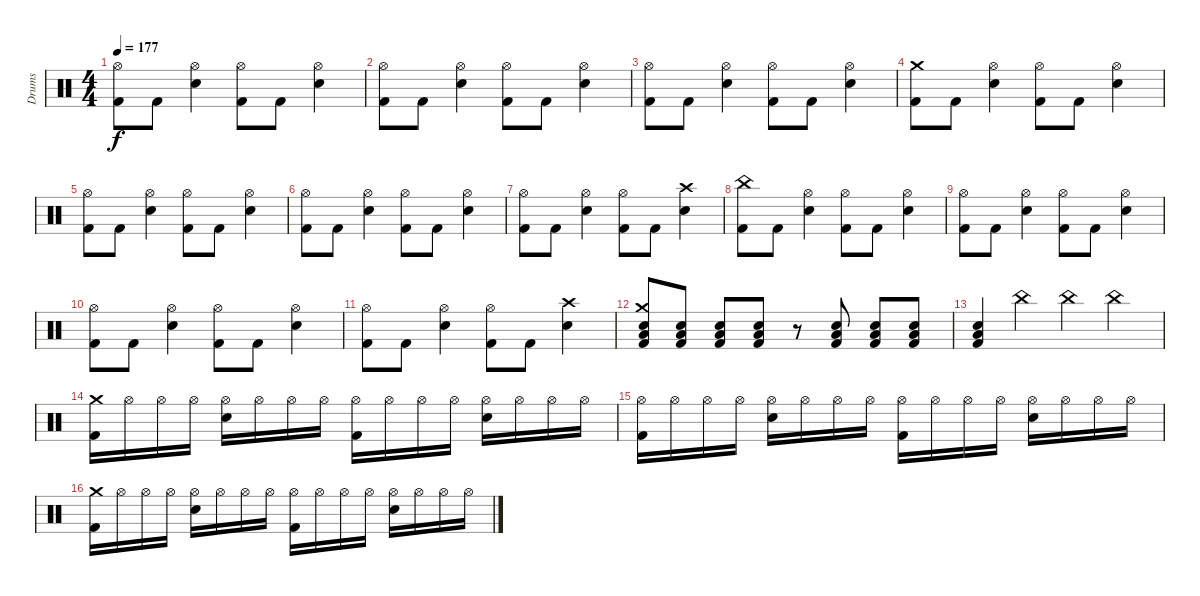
\track ("Drums" "Drums") {solo instrument percussion}
\staff {score}
\articulation defaults
\ts (4 4)
\tempo 177
\clef neutral
\ks c
("Hi-Hat (open)" "Kick (hit) 2").8{dy f} "Kick (hit) 2".8 ("Hi-Hat (open)" "Snare (hit) 2").4 ("Hi-Hat (open)" "Kick (hit) 2").8 "Kick (hit) 2".8 ("Hi-Hat (open)" "Snare (hit) 2").4 |
("Hi-Hat (open)" "Kick (hit) 2").8 "Kick (hit) 2".8 ("Hi-Hat (open)" "Snare (hit) 2").4 ("Hi-Hat (open)" "Kick (hit) 2").8 "Kick (hit) 2".8 ("Hi-Hat (open)" "Snare (hit) 2").4 |
("Hi-Hat (open)" "Kick (hit) 2").8 "Kick (hit) 2".8 ("Hi-Hat (open)" "Snare (hit) 2").4 ("Hi-Hat (open)" "Kick (hit) 2").8 "Kick (hit) 2".8 ("Hi-Hat (open)" "Snare (hit) 2").4 |
("Crash medium (hit)" "Kick (hit) 2").8 "Kick (hit) 2".8 ("Hi-Hat (open)" "Snare (hit) 2").4 ("Hi-Hat (open)" "Kick (hit) 2").8 "Kick (hit) 2".8 ("Hi-Hat (open)" "Snare (hit) 2").4 |
("Hi-Hat (open)" "Kick (hit) 2").8 "Kick (hit) 2".8 ("Hi-Hat (open)" "Snare (hit) 2").4 ("Hi-Hat (open)" "Kick (hit) 2").8 "Kick (hit) 2".8 ("Hi-Hat (open)" "Snare (hit) 2").4 |
("Hi-Hat (open)" "Kick (hit) 2").8 "Kick (hit) 2".8 ("Hi-Hat (open)" "Snare (hit) 2").4 ("Hi-Hat (open)" "Kick (hit) 2").8 "Kick (hit) 2".8 ("Hi-Hat (open)" "Snare (hit) 2").4 |
("Hi-Hat (open)" "Kick (hit) 2").8 "Kick (hit) 2".8 ("Hi-Hat (open)" "Snare (hit) 2").4 ("Hi-Hat (open)" "Kick (hit) 2").8 "Kick (hit) 2".8 ("Crash high (hit)" "Snare (hit) 2").4 |
("China (hit)" "Kick (hit) 2").8 "Kick (hit) 2".8 ("Hi-Hat (open)" "Snare (hit) 2").4 ("Hi-Hat (open)" "Kick (hit) 2").8 "Kick (hit) 2".8 ("Hi-Hat (open)" "Snare (hit) 2").4 |
("Hi-Hat (open)" "Kick (hit) 2").8 "Kick (hit) 2".8 ("Hi-Hat (open)" "Snare (hit) 2").4 ("Hi-Hat (open)" "Kick (hit) 2").8 "Kick (hit) 2".8 ("Hi-Hat (open)" "Snare (hit) 2").4 |
("Hi-Hat (open)" "Kick (hit) 2").8 "Kick (hit) 2".8 ("Hi-Hat (open)" "Snare (hit) 2").4 ("Hi-Hat (open)" "Kick (hit) 2").8 "Kick (hit) 2".8 ("Hi-Hat (open)" "Snare (hit) 2").4 |
("Hi-Hat (open)" "Kick (hit) 2").8 "Kick (hit) 2".8 ("Hi-Hat (open)" "Snare (hit) 2").4 ("Hi-Hat (open)" "Kick (hit) 2").8 "Kick (hit) 2".8 ("Crash high (hit)" "Snare (hit) 2").4 |
("Crash medium (hit)" "Low Floor Tom (hit)" "Snare (hit) 2" "Kick (hit) 2").8 ("Low Floor Tom (hit)" "Snare (hit) 2" "Kick (hit) 2").8 ("Low Floor Tom (hit)" "Snare (hit) 2" "Kick (hit) 2").8 ("Low Floor Tom (hit)" "Snare (hit) 2" "Kick (hit) 2").8 r.8 ("Low Floor Tom (hit)" "Snare (hit) 2" "Kick (hit) 2").8 ("Low Floor Tom (hit)" "Snare (hit) 2" "Kick (hit) 2").8 ("Low Floor Tom (hit)" "Snare (hit) 2" "Kick (hit) 2").8 |
("Low Floor Tom (hit)" "Snare (hit) 2" "Kick (hit) 2").4 "China (hit)".4 "China (hit)".4 "China (hit)".4 |
("Crash medium (hit)" "Kick (hit) 2").16 "Hi-Hat (open)".16 "Hi-Hat (open)".16 "Hi-Hat (open)".16 ("Hi-Hat (open)" "Snare (hit) 2").16 "Hi-Hat (open)".16 "Hi-Hat (open)".16 "Hi-Hat (open)".16 ("Hi-Hat (open)" "Kick (hit) 2").16 "Hi-Hat (open)".16 "Hi-Hat (open)".16 "Hi-Hat (open)".16 ("Hi-Hat (open)" "Snare (hit) 2").16 "Hi-Hat (open)".16 "Hi-Hat (open)".16 "Hi-Hat (open)".16 |
("Hi-Hat (open)" "Kick (hit) 2").16 "Hi-Hat (open)".16 "Hi-Hat (open)".16 "Hi-Hat (open)".16 ("Hi-Hat (open)" "Snare (hit) 2").16 "Hi-Hat (open)".16 "Hi-Hat (open)".16 "Hi-Hat (open)".16 ("Hi-Hat (open)" "Kick (hit) 2").16 "Hi-Hat (open)".16 "Hi-Hat (open)".16 "Hi-Hat (open)".16 ("Hi-Hat (open)" "Snare (hit) 2").16 "Hi-Hat (open)".16 "Hi-Hat (open)".16 "Hi-Hat (open)".16 |
("Crash medium (hit)" "Kick (hit) 2").16 "Hi-Hat (open)".16 "Hi-Hat (open)".16 "Hi-Hat (open)".16 ("Hi-Hat (open)" "Snare (hit) 2").16 "Hi-Hat (open)".16 "Hi-Hat (open)".16 "Hi-Hat (open)".16 ("Hi-Hat (open)" "Kick (hit) 2").16 "Hi-Hat (open)".16 "Hi-Hat (open)".16 "Hi-Hat (open)".16 ("Hi-Hat (open)" "Snare (hit) 2").16 "Hi-Hat (open)".16 "Hi-Hat (open)".16 "Hi-Hat (open)".16
